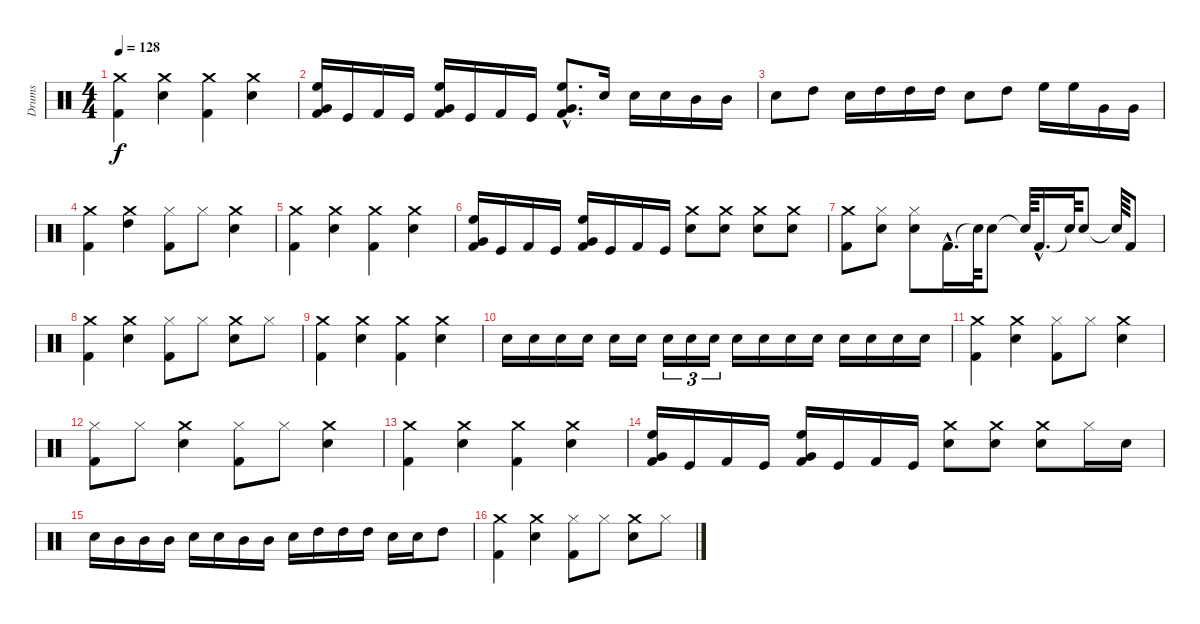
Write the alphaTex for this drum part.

\track ("Drums" "Drums") {instrument percussion}
\staff {score}
\articulation defaults
\ts (4 4)
\tempo 128
\clef neutral
\ks c
("Crash medium (hit)" "Kick (hit) 2").4{dy f} ("Crash medium (hit)" "Snare (hit) 2").4 ("Crash medium (hit)" "Kick (hit) 2").4 ("Crash medium (hit)" "Snare (hit) 2").4 |
("Kick (hit) 2" "High Floor Tom (hit)" "Very Low Tom (hit)").16 "Kick (hit)".16 "Kick (hit) 2".16 "Kick (hit)".16 ("Kick (hit) 2" "High Floor Tom (hit)" "Very Low Tom (hit)").16 "Kick (hit)".16 "Kick (hit) 2".16 "Kick (hit)".16 ("High Floor Tom (hit)"{hac} "Very Low Tom (hit)"{hac} "Kick (hit) 2"{hac}).8{d} "Snare (hit) 2".16 "Snare (hit) 2".16 "Snare (hit) 2".16 "Mid Tom (hit)".16 "Mid Tom (hit)".16 |
"Snare (hit) 2".8 "High Tom (hit)".8 "Snare (hit) 2".16 "High Tom (hit)".16 "High Tom (hit)".16 "High Tom (hit)".16 "Snare (hit) 2".8 "High Tom (hit)".8 "High Floor Tom (hit)".16 "High Floor Tom (hit)".16 "Very Low Tom (hit)".16 "Very Low Tom (hit)".16 |
("Crash medium (hit)" "Kick (hit) 2").4 ("Crash medium (hit)" "High Tom (hit)").4 ("Kick (hit) 2" "Hi-Hat (closed)").8 "Hi-Hat (closed)".8 ("Crash medium (hit)" "Snare (hit) 2").4 |
("Kick (hit) 2" "Crash medium (hit)").4 ("Snare (hit) 2" "Crash medium (hit)").4 ("Kick (hit) 2" "Crash medium (hit)").4 ("Snare (hit) 2" "Crash medium (hit)").4 |
("Kick (hit) 2" "High Floor Tom (hit)" "Very Low Tom (hit)").16 "Kick (hit)".16 "Kick (hit) 2".16 "Kick (hit)".16 ("Kick (hit) 2" "High Floor Tom (hit)" "Very Low Tom (hit)").16 "Kick (hit)".16 "Kick (hit) 2".16 "Kick (hit)".16 ("Snare (hit) 2" "Crash medium (hit)").8 ("Snare (hit) 2" "Crash medium (hit)").8 ("Snare (hit) 2" "Crash medium (hit)").8 ("Snare (hit) 2" "Crash medium (hit)").8 |
("Kick (hit) 2" "Crash medium (hit)").8 ("Snare (hit) 2" "Hi-Hat (closed)").8 ("Hi-Hat (closed)" "Snare (hit) 2").8 "Kick (hit) 2"{hac}.16{d} "Snare (hit)"{t}.64 "Snare (hit) 2".8 "Snare (hit)"{t}.64 "Kick (hit) 2"{hac}.16{d} "Snare (hit)"{t}.64 "Snare (hit) 2".8 "Snare (hit)"{t}.64 "Kick (hit) 2".8 |
("Kick (hit) 2" "Crash medium (hit)").4 ("Snare (hit) 2" "Crash medium (hit)").4 ("Hi-Hat (closed)" "Kick (hit) 2").8 "Hi-Hat (closed)".8 ("Crash medium (hit)" "Snare (hit) 2").8 "Hi-Hat (closed)".8 |
("Kick (hit) 2" "Crash medium (hit)").4 ("Snare (hit) 2" "Crash medium (hit)").4 ("Kick (hit) 2" "Crash medium (hit)").4 ("Snare (hit) 2" "Crash medium (hit)").4 |
"Snare (hit) 2".16 "Snare (hit) 2".16 "Snare (hit) 2".16 "Snare (hit) 2".16 "Snare (hit) 2".16 "Snare (hit) 2".16 "Snare (hit) 2".16{tu (3 2)} "Snare (hit) 2".16{tu (3 2)} "Snare (hit) 2".16{tu (3 2)} "Snare (hit) 2".16 "Snare (hit) 2".16 "Snare (hit) 2".16 "Snare (hit) 2".16 "Snare (hit) 2".16 "Snare (hit) 2".16 "Snare (hit) 2".16 "Snare (hit) 2".16 |
("Kick (hit) 2" "Crash medium (hit)").4 ("Snare (hit) 2" "Crash medium (hit)").4 ("Hi-Hat (closed)" "Kick (hit) 2").8 "Hi-Hat (closed)".8 ("Crash medium (hit)" "Snare (hit) 2").4 |
("Kick (hit) 2" "Hi-Hat (closed)").8 "Hi-Hat (closed)".8 ("Crash medium (hit)" "Snare (hit) 2").4 ("Kick (hit) 2" "Hi-Hat (closed)").8 "Hi-Hat (closed)".8 ("Snare (hit) 2" "Crash medium (hit)").4 |
("Crash medium (hit)" "Kick (hit) 2").4 ("Crash medium (hit)" "Snare (hit) 2").4 ("Crash medium (hit)" "Kick (hit) 2").4 ("Crash medium (hit)" "Snare (hit) 2").4 |
("Kick (hit) 2" "High Floor Tom (hit)" "Very Low Tom (hit)").16 "Kick (hit)".16 "Kick (hit) 2".16 "Kick (hit)".16 ("Kick (hit) 2" "High Floor Tom (hit)" "Very Low Tom (hit)").16 "Kick (hit)".16 "Kick (hit) 2".16 "Kick (hit)".16 ("Crash medium (hit)" "Snare (hit) 2").8 ("Crash medium (hit)" "Snare (hit) 2").8 ("Crash medium (hit)" "Snare (hit) 2").8 "Hi-Hat (closed)".16 "Snare (hit) 2".16 |
"Snare (hit) 2".16 "Mid Tom (hit)".16 "Mid Tom (hit)".16 "Mid Tom (hit)".16 "Snare (hit) 2".16 "Snare (hit) 2".16 "Mid Tom (hit)".16 "Mid Tom (hit)".16 "Snare (hit) 2".16 "High Tom (hit)".16 "High Tom (hit)".16 "High Tom (hit)".16 "Snare (hit) 2".16 "Snare (hit) 2".16 "High Tom (hit)".8 |
("Crash medium (hit)" "Kick (hit) 2").4 ("Crash medium (hit)" "Snare (hit) 2").4 ("Kick (hit) 2" "Hi-Hat (closed)").8 "Hi-Hat (closed)".8 ("Crash medium (hit)" "Snare (hit) 2").8 "Hi-Hat (closed)".8
